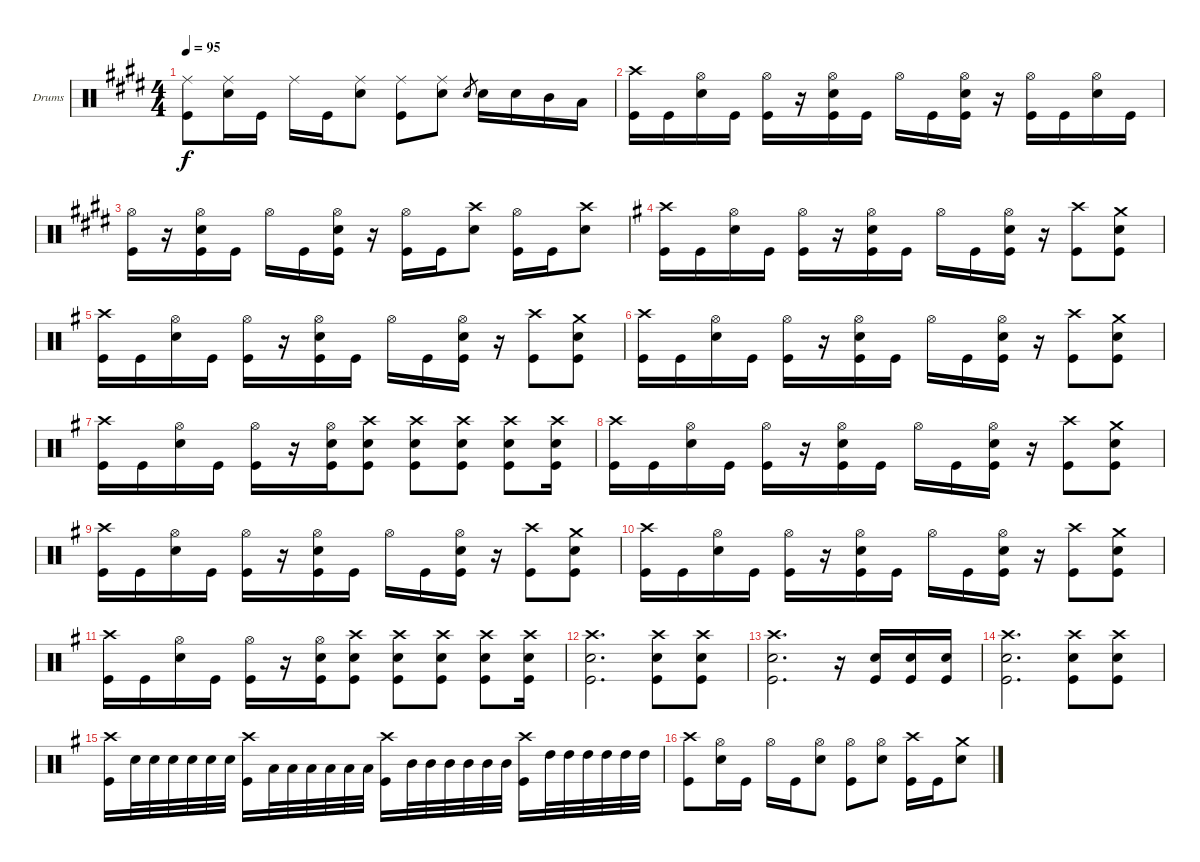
\bracketExtendMode groupsimilarinstruments
\firstSystemTrackNameOrientation horizontal
\otherSystemsTrackNameOrientation horizontal
\track ("Drumkit" "Drums") {instrument percussion}
\staff {score}
\articulation defaults
\ts (4 4)
\tempo 95
\clef neutral
\ks c#minor
("Kick (hit)" "Ride (middle)").8{dy f} ("Snare (hit) 2" "Ride (middle)").16 "Kick (hit)".16 "Ride (middle)".16 "Kick (hit)".16 ("Snare (hit) 2" "Ride (middle)").8 ("Kick (hit)" "Ride (middle)").8 ("Snare (hit) 2" "Ride (middle)").8 "Snare (hit) 2".8{gr} "Snare (hit) 2".16 "Snare (hit) 2".16 "Mid Tom (hit)".16 "Low Tom (hit)".16 |
("Kick (hit)" "Crash high (hit)").16 "Kick (hit)".16 ("Snare (hit) 2" "Hi-Hat (open)").16 "Kick (hit)".16 ("Kick (hit)" "Hi-Hat (open)").16 r.16 ("Kick (hit)" "Hi-Hat (open)" "Snare (hit) 2").16 "Kick (hit)".16 "Hi-Hat (open)".16 "Kick (hit)".16 ("Kick (hit)" "Hi-Hat (open)" "Snare (hit) 2").16 r.16 ("Kick (hit)" "Hi-Hat (open)").16 "Kick (hit)".16 ("Hi-Hat (open)" "Snare (hit) 2").16 "Kick (hit)".16 |
("Kick (hit)" "Hi-Hat (open)").16 r.16 ("Kick (hit)" "Hi-Hat (open)" "Snare (hit) 2").16 "Kick (hit)".16 "Hi-Hat (open)".16 "Kick (hit)".16 ("Kick (hit)" "Hi-Hat (open)" "Snare (hit) 2").16 r.16 ("Kick (hit)" "Hi-Hat (open)").16 "Kick (hit)".16 ("Snare (hit) 2" "Crash high (hit)").8 ("Kick (hit)" "Hi-Hat (open)").16 "Kick (hit)".16 ("Snare (hit) 2" "Crash high (hit)").8 |
\ks eminor
("Kick (hit)" "Crash high (hit)").16 "Kick (hit)".16 ("Snare (hit) 2" "Hi-Hat (open)").16 "Kick (hit)".16 ("Kick (hit)" "Hi-Hat (open)").16 r.16 ("Kick (hit)" "Hi-Hat (open)" "Snare (hit) 2").16 "Kick (hit)".16 "Hi-Hat (open)".16 "Kick (hit)".16 ("Kick (hit)" "Hi-Hat (open)" "Snare (hit) 2").16 r.16 ("Kick (hit)" "Crash high (hit)").8 ("Snare (hit) 2" "Kick (hit)" "Crash medium (hit)").8 |
("Kick (hit)" "Crash high (hit)").16 "Kick (hit)".16 ("Snare (hit) 2" "Hi-Hat (open)").16 "Kick (hit)".16 ("Kick (hit)" "Hi-Hat (open)").16 r.16 ("Kick (hit)" "Hi-Hat (open)" "Snare (hit) 2").16 "Kick (hit)".16 "Hi-Hat (open)".16 "Kick (hit)".16 ("Kick (hit)" "Hi-Hat (open)" "Snare (hit) 2").16 r.16 ("Kick (hit)" "Crash high (hit)").8 ("Snare (hit) 2" "Kick (hit)" "Crash medium (hit)").8 |
("Kick (hit)" "Crash high (hit)").16 "Kick (hit)".16 ("Snare (hit) 2" "Hi-Hat (open)").16 "Kick (hit)".16 ("Kick (hit)" "Hi-Hat (open)").16 r.16 ("Kick (hit)" "Hi-Hat (open)" "Snare (hit) 2").16 "Kick (hit)".16 "Hi-Hat (open)".16 "Kick (hit)".16 ("Kick (hit)" "Hi-Hat (open)" "Snare (hit) 2").16 r.16 ("Kick (hit)" "Crash high (hit)").8 ("Snare (hit) 2" "Kick (hit)" "Crash medium (hit)").8 |
("Kick (hit)" "Crash high (hit)").16 "Kick (hit)".16 ("Snare (hit) 2" "Hi-Hat (open)").16 "Kick (hit)".16 ("Kick (hit)" "Hi-Hat (open)").16 r.16 ("Kick (hit)" "Hi-Hat (open)" "Snare (hit) 2").16 ("Snare (hit) 2" "Kick (hit)" "Crash high (hit)").8 ("Snare (hit) 2" "Kick (hit)" "Crash high (hit)").8 ("Snare (hit) 2" "Kick (hit)" "Crash high (hit)").8 ("Snare (hit) 2" "Kick (hit)" "Crash high (hit)").8 ("Snare (hit) 2" "Kick (hit)" "Crash high (hit)").16 |
("Kick (hit)" "Crash high (hit)").16 "Kick (hit)".16 ("Snare (hit) 2" "Hi-Hat (open)").16 "Kick (hit)".16 ("Kick (hit)" "Hi-Hat (open)").16 r.16 ("Kick (hit)" "Hi-Hat (open)" "Snare (hit) 2").16 "Kick (hit)".16 "Hi-Hat (open)".16 "Kick (hit)".16 ("Kick (hit)" "Hi-Hat (open)" "Snare (hit) 2").16 r.16 ("Kick (hit)" "Crash high (hit)").8 ("Snare (hit) 2" "Kick (hit)" "Crash medium (hit)").8 |
("Kick (hit)" "Crash high (hit)").16 "Kick (hit)".16 ("Snare (hit) 2" "Hi-Hat (open)").16 "Kick (hit)".16 ("Kick (hit)" "Hi-Hat (open)").16 r.16 ("Kick (hit)" "Hi-Hat (open)" "Snare (hit) 2").16 "Kick (hit)".16 "Hi-Hat (open)".16 "Kick (hit)".16 ("Kick (hit)" "Hi-Hat (open)" "Snare (hit) 2").16 r.16 ("Kick (hit)" "Crash high (hit)").8 ("Snare (hit) 2" "Kick (hit)" "Crash medium (hit)").8 |
("Kick (hit)" "Crash high (hit)").16 "Kick (hit)".16 ("Snare (hit) 2" "Hi-Hat (open)").16 "Kick (hit)".16 ("Kick (hit)" "Hi-Hat (open)").16 r.16 ("Kick (hit)" "Hi-Hat (open)" "Snare (hit) 2").16 "Kick (hit)".16 "Hi-Hat (open)".16 "Kick (hit)".16 ("Kick (hit)" "Hi-Hat (open)" "Snare (hit) 2").16 r.16 ("Kick (hit)" "Crash high (hit)").8 ("Snare (hit) 2" "Kick (hit)" "Crash medium (hit)").8 |
("Kick (hit)" "Crash high (hit)").16 "Kick (hit)".16 ("Snare (hit) 2" "Hi-Hat (open)").16 "Kick (hit)".16 ("Kick (hit)" "Hi-Hat (open)").16 r.16 ("Kick (hit)" "Hi-Hat (open)" "Snare (hit) 2").16 ("Snare (hit) 2" "Kick (hit)" "Crash high (hit)").8 ("Snare (hit) 2" "Kick (hit)" "Crash high (hit)").8 ("Snare (hit) 2" "Kick (hit)" "Crash high (hit)").8 ("Snare (hit) 2" "Kick (hit)" "Crash high (hit)").8 ("Snare (hit) 2" "Kick (hit)" "Crash high (hit)").16 |
("Kick (hit)" "Snare (hit) 2" "Crash high (hit)").2{d} ("Kick (hit)" "Snare (hit) 2" "Crash high (hit)").8 ("Crash high (hit)" "Snare (hit) 2" "Kick (hit)").8 |
("Kick (hit)" "Snare (hit) 2" "Crash high (hit)").2{d} r.16 ("Snare (hit) 2" "Kick (hit)").16 ("Snare (hit) 2" "Kick (hit)").16 ("Snare (hit) 2" "Kick (hit)").16 |
("Kick (hit)" "Snare (hit) 2" "Crash high (hit)").2{d} ("Kick (hit)" "Snare (hit) 2" "Crash high (hit)").8 ("Crash high (hit)" "Snare (hit) 2" "Kick (hit)").8 |
("Kick (hit)" "Crash high (hit)").16 "Snare (hit) 2".32 "Snare (hit) 2".32 "Snare (hit) 2".32 "Snare (hit) 2".32 "Snare (hit) 2".32 "Snare (hit) 2".32 ("Kick (hit)" "Crash high (hit)").16 "Low Tom (hit)".32 "Low Tom (hit)".32 "Low Tom (hit)".32 "Low Tom (hit)".32 "Low Tom (hit)".32 "Low Tom (hit)".32 ("Kick (hit)" "Crash high (hit)").16 "Mid Tom (hit)".32 "Mid Tom (hit)".32 "Mid Tom (hit)".32 "Mid Tom (hit)".32 "Mid Tom (hit)".32 "Mid Tom (hit)".32 ("Kick (hit)" "Crash high (hit)").16 "High Tom (hit)".32 "High Tom (hit)".32 "High Tom (hit)".32 "High Tom (hit)".32 "High Tom (hit)".32 "High Tom (hit)".32 |
("Crash high (hit)" "Kick (hit)").8 ("Snare (hit) 2" "Hi-Hat (open)").16 "Kick (hit)".16 "Hi-Hat (open)".16 "Kick (hit)".16 ("Snare (hit) 2" "Hi-Hat (open)").8 ("Kick (hit)" "Hi-Hat (open)").8 ("Snare (hit) 2" "Hi-Hat (open)").8 ("Kick (hit)" "Crash high (hit)").16 "Kick (hit)".16 ("Snare (hit) 2" "Crash medium (hit)").8
